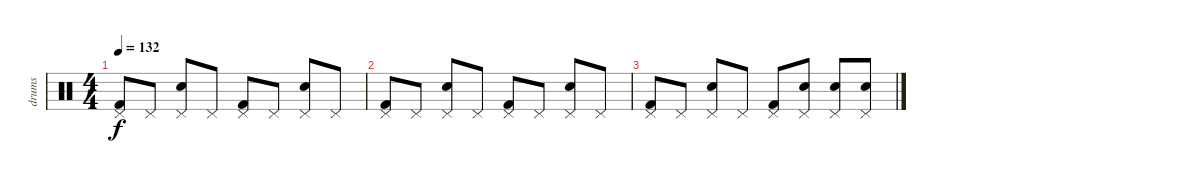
\track ("drums" "drums") {instrument percussion}
\staff {score}
\articulation defaults
\ts (4 4)
\tempo 132
\clef neutral
\ks c
("Kick (hit) 2" "Pedal Hi-Hat (hit)").8{dy f} "Pedal Hi-Hat (hit)".8 ("Electric Snare (hit)" "Pedal Hi-Hat (hit)").8 "Pedal Hi-Hat (hit)".8 ("Kick (hit) 2" "Pedal Hi-Hat (hit)").8 "Pedal Hi-Hat (hit)".8 ("Electric Snare (hit)" "Pedal Hi-Hat (hit)").8 "Pedal Hi-Hat (hit)".8 |
("Kick (hit) 2" "Pedal Hi-Hat (hit)").8 "Pedal Hi-Hat (hit)".8 ("Electric Snare (hit)" "Pedal Hi-Hat (hit)").8 "Pedal Hi-Hat (hit)".8 ("Kick (hit) 2" "Pedal Hi-Hat (hit)").8 "Pedal Hi-Hat (hit)".8 ("Electric Snare (hit)" "Pedal Hi-Hat (hit)").8 "Pedal Hi-Hat (hit)".8 |
("Kick (hit) 2" "Pedal Hi-Hat (hit)").8 "Pedal Hi-Hat (hit)".8 ("Electric Snare (hit)" "Pedal Hi-Hat (hit)").8 "Pedal Hi-Hat (hit)".8 ("Kick (hit) 2" "Pedal Hi-Hat (hit)").8 ("Electric Snare (hit)" "Pedal Hi-Hat (hit)").8 ("Electric Snare (hit)" "Pedal Hi-Hat (hit)").8 ("Electric Snare (hit)" "Pedal Hi-Hat (hit)").8
